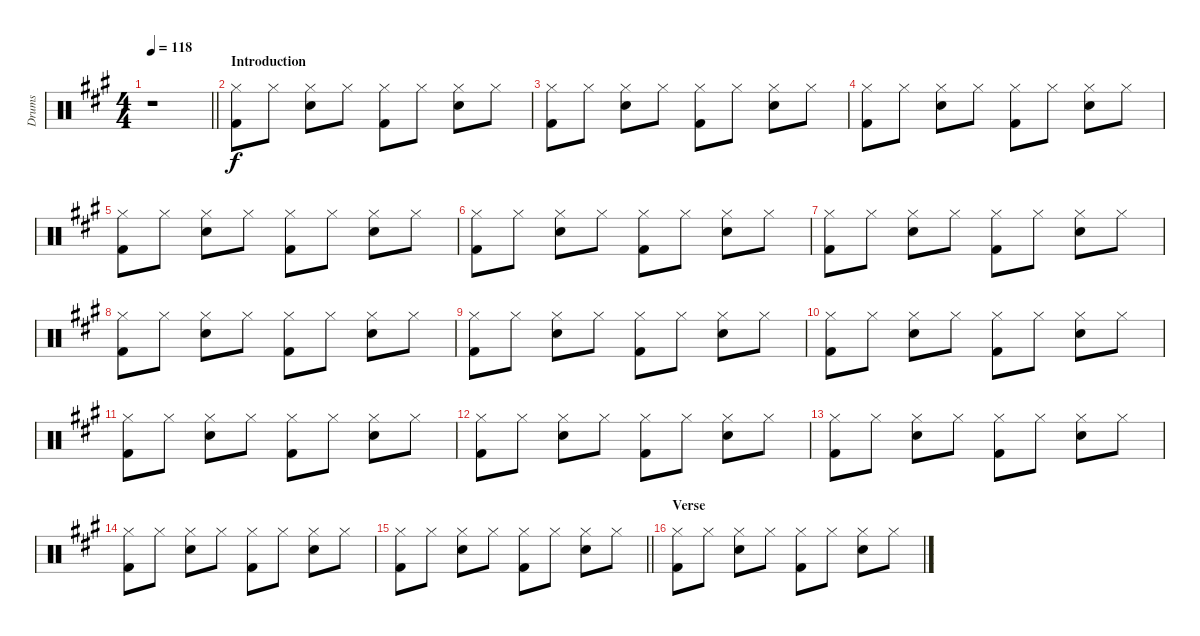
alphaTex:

\track ("Drums" "Drums") {instrument percussion}
\staff {score}
\articulation defaults
\ts (4 4)
\tempo 118
\clef neutral
\barLineRight lightlight
\ks f#minor
r.1{dy f} |
\section ("" "Introduction")
("Hi-Hat (closed)" "Kick (hit) 2").8 "Hi-Hat (closed)".8 ("Hi-Hat (closed)" "Snare (hit) 2").8 "Hi-Hat (closed)".8 ("Hi-Hat (closed)" "Kick (hit) 2").8 "Hi-Hat (closed)".8 ("Hi-Hat (closed)" "Snare (hit) 2").8 "Hi-Hat (closed)".8 |
("Hi-Hat (closed)" "Kick (hit) 2").8 "Hi-Hat (closed)".8 ("Hi-Hat (closed)" "Snare (hit) 2").8 "Hi-Hat (closed)".8 ("Hi-Hat (closed)" "Kick (hit) 2").8 "Hi-Hat (closed)".8 ("Hi-Hat (closed)" "Snare (hit) 2").8 "Hi-Hat (closed)".8 |
("Hi-Hat (closed)" "Kick (hit) 2").8 "Hi-Hat (closed)".8 ("Hi-Hat (closed)" "Snare (hit) 2").8 "Hi-Hat (closed)".8 ("Hi-Hat (closed)" "Kick (hit) 2").8 "Hi-Hat (closed)".8 ("Hi-Hat (closed)" "Snare (hit) 2").8 "Hi-Hat (closed)".8 |
("Hi-Hat (closed)" "Kick (hit) 2").8 "Hi-Hat (closed)".8 ("Hi-Hat (closed)" "Snare (hit) 2").8 "Hi-Hat (closed)".8 ("Hi-Hat (closed)" "Kick (hit) 2").8 "Hi-Hat (closed)".8 ("Hi-Hat (closed)" "Snare (hit) 2").8 "Hi-Hat (closed)".8 |
("Hi-Hat (closed)" "Kick (hit) 2").8 "Hi-Hat (closed)".8 ("Hi-Hat (closed)" "Snare (hit) 2").8 "Hi-Hat (closed)".8 ("Hi-Hat (closed)" "Kick (hit) 2").8 "Hi-Hat (closed)".8 ("Hi-Hat (closed)" "Snare (hit) 2").8 "Hi-Hat (closed)".8 |
("Hi-Hat (closed)" "Kick (hit) 2").8 "Hi-Hat (closed)".8 ("Hi-Hat (closed)" "Snare (hit) 2").8 "Hi-Hat (closed)".8 ("Hi-Hat (closed)" "Kick (hit) 2").8 "Hi-Hat (closed)".8 ("Hi-Hat (closed)" "Snare (hit) 2").8 "Hi-Hat (closed)".8 |
("Hi-Hat (closed)" "Kick (hit) 2").8 "Hi-Hat (closed)".8 ("Hi-Hat (closed)" "Snare (hit) 2").8 "Hi-Hat (closed)".8 ("Hi-Hat (closed)" "Kick (hit) 2").8 "Hi-Hat (closed)".8 ("Hi-Hat (closed)" "Snare (hit) 2").8 "Hi-Hat (closed)".8 |
("Hi-Hat (closed)" "Kick (hit) 2").8 "Hi-Hat (closed)".8 ("Hi-Hat (closed)" "Snare (hit) 2").8 "Hi-Hat (closed)".8 ("Hi-Hat (closed)" "Kick (hit) 2").8 "Hi-Hat (closed)".8 ("Hi-Hat (closed)" "Snare (hit) 2").8 "Hi-Hat (closed)".8 |
("Hi-Hat (closed)" "Kick (hit) 2").8 "Hi-Hat (closed)".8 ("Hi-Hat (closed)" "Snare (hit) 2").8 "Hi-Hat (closed)".8 ("Hi-Hat (closed)" "Kick (hit) 2").8 "Hi-Hat (closed)".8 ("Hi-Hat (closed)" "Snare (hit) 2").8 "Hi-Hat (closed)".8 |
("Hi-Hat (closed)" "Kick (hit) 2").8 "Hi-Hat (closed)".8 ("Hi-Hat (closed)" "Snare (hit) 2").8 "Hi-Hat (closed)".8 ("Hi-Hat (closed)" "Kick (hit) 2").8 "Hi-Hat (closed)".8 ("Hi-Hat (closed)" "Snare (hit) 2").8 "Hi-Hat (closed)".8 |
("Hi-Hat (closed)" "Kick (hit) 2").8 "Hi-Hat (closed)".8 ("Hi-Hat (closed)" "Snare (hit) 2").8 "Hi-Hat (closed)".8 ("Hi-Hat (closed)" "Kick (hit) 2").8 "Hi-Hat (closed)".8 ("Hi-Hat (closed)" "Snare (hit) 2").8 "Hi-Hat (closed)".8 |
("Hi-Hat (closed)" "Kick (hit) 2").8 "Hi-Hat (closed)".8 ("Hi-Hat (closed)" "Snare (hit) 2").8 "Hi-Hat (closed)".8 ("Hi-Hat (closed)" "Kick (hit) 2").8 "Hi-Hat (closed)".8 ("Hi-Hat (closed)" "Snare (hit) 2").8 "Hi-Hat (closed)".8 |
("Hi-Hat (closed)" "Kick (hit) 2").8 "Hi-Hat (closed)".8 ("Hi-Hat (closed)" "Snare (hit) 2").8 "Hi-Hat (closed)".8 ("Hi-Hat (closed)" "Kick (hit) 2").8 "Hi-Hat (closed)".8 ("Hi-Hat (closed)" "Snare (hit) 2").8 "Hi-Hat (closed)".8 |
\barLineRight lightlight
("Hi-Hat (closed)" "Kick (hit) 2").8 "Hi-Hat (closed)".8 ("Hi-Hat (closed)" "Snare (hit) 2").8 "Hi-Hat (closed)".8 ("Hi-Hat (closed)" "Kick (hit) 2").8 "Hi-Hat (closed)".8 ("Hi-Hat (closed)" "Snare (hit) 2").8 "Hi-Hat (closed)".8 |
\section ("" "Verse")
("Hi-Hat (closed)" "Kick (hit) 2").8 "Hi-Hat (closed)".8 ("Hi-Hat (closed)" "Snare (hit) 2").8 "Hi-Hat (closed)".8 ("Hi-Hat (closed)" "Kick (hit) 2").8 "Hi-Hat (closed)".8 ("Hi-Hat (closed)" "Snare (hit) 2").8 "Hi-Hat (closed)".8
